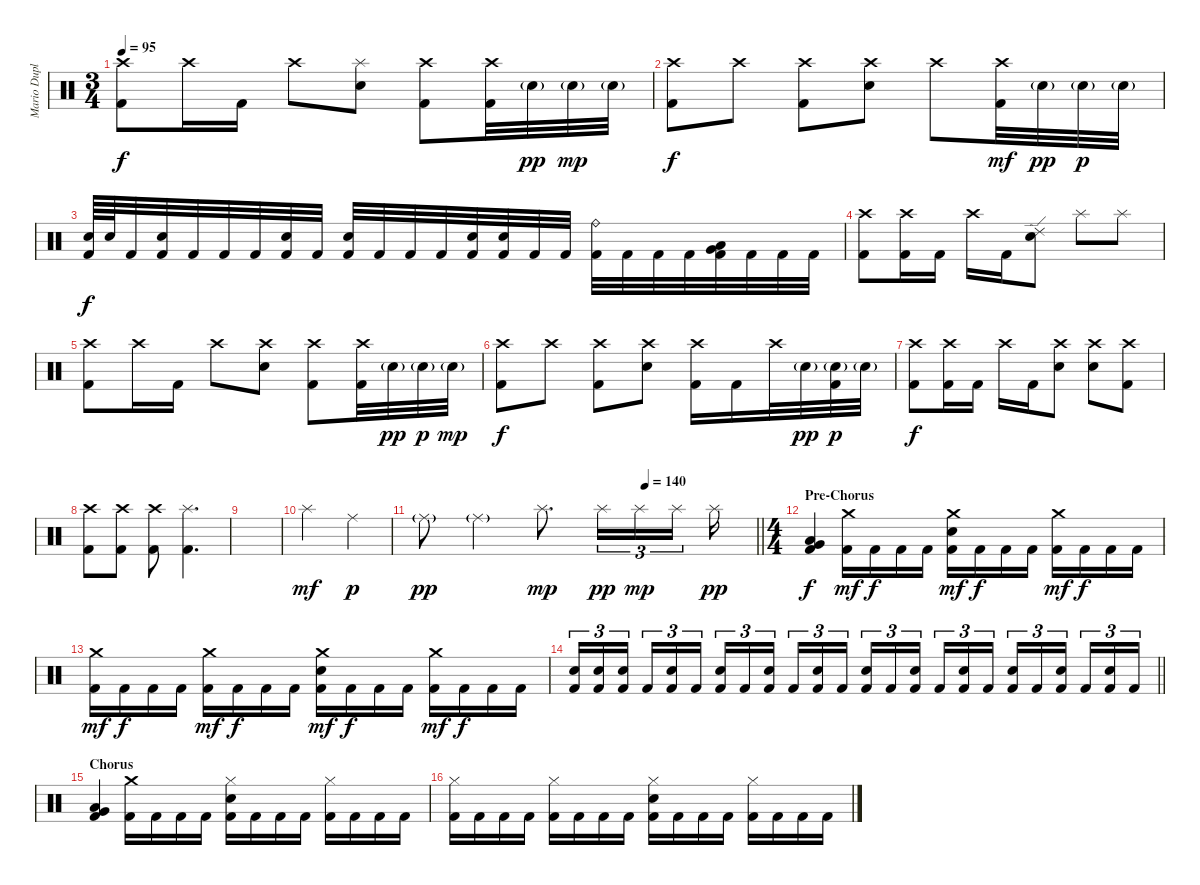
\track ("Mario Duplantier" "Mario Dupl") {instrument percussion}
\staff {score}
\articulation defaults
\ts (3 4)
\tempo 95
\clef neutral
\ks c
("Crash high (hit)" "Kick (hit) 2").8{dy f} "Crash high (hit)".16 "Kick (hit) 2".16 "Crash high (hit)".8 ("Splash (hit)" "Snare (hit) 2").8 ("Crash high (hit)" "Kick (hit) 2").8 ("Crash high (hit)" "Kick (hit) 2").32 "Snare (hit) 2"{g}.32{dy pp} "Snare (hit) 2"{g}.32{dy mp} "Snare (hit) 2"{g}.32 |
("Crash high (hit)" "Kick (hit) 2").8{dy f} "Crash high (hit)".8 ("Crash high (hit)" "Kick (hit) 2").8 ("Crash high (hit)" "Snare (hit) 2").8 "Crash high (hit)".8 ("Crash high (hit)" "Kick (hit) 2").32{dy mf} "Snare (hit) 2"{g}.32{dy pp} "Snare (hit) 2"{g}.32{dy p} "Snare (hit) 2"{g}.32 |
("Snare (hit) 2" "Kick (hit) 2").64{dy f} "Snare (hit) 2".64 "Kick (hit) 2".32 ("Snare (hit) 2" "Kick (hit) 2").32 "Kick (hit) 2".32 "Kick (hit) 2".32 "Kick (hit) 2".32 ("Snare (hit) 2" "Kick (hit) 2").32 "Kick (hit) 2".32 ("Snare (hit) 2" "Kick (hit) 2").32 "Kick (hit) 2".32 "Kick (hit) 2".32 "Kick (hit) 2".32 ("Snare (hit) 2" "Kick (hit) 2").32 ("Snare (hit) 2" "Kick (hit) 2").32 "Kick (hit) 2".32 "Kick (hit) 2".32 ("Ride (bell)" "Kick (hit) 2").32 "Kick (hit) 2".32 "Kick (hit) 2".32 "Kick (hit) 2".32 ("Low Floor Tom (hit)" "Very Low Tom (hit)" "Kick (hit) 2").32 "Kick (hit) 2".32 "Kick (hit) 2".32 "Kick (hit) 2".32 |
("Crash high (hit)" "Kick (hit) 2").8 ("Crash high (hit)" "Kick (hit) 2").16 "Kick (hit) 2".16 "Crash high (hit)".16 "Kick (hit) 2".16 ("Ride (edge) 2" "Snare (hit) 2").8 "Splash (hit)".8 "Splash (hit)".8 |
("Crash high (hit)" "Kick (hit) 2").8 "Crash high (hit)".16 "Kick (hit) 2".16 "Crash high (hit)".8 ("Crash high (hit)" "Snare (hit) 2").8 ("Crash high (hit)" "Kick (hit) 2").8 ("Crash high (hit)" "Kick (hit) 2").32 "Snare (hit) 2"{g}.32{dy pp} "Snare (hit) 2"{g}.32{dy p} "Snare (hit) 2"{g}.32{dy mp} |
("Crash high (hit)" "Kick (hit) 2").8{dy f} "Crash high (hit)".8 ("Crash high (hit)" "Kick (hit) 2").8 ("Crash high (hit)" "Snare (hit) 2").8 ("Crash high (hit)" "Kick (hit) 2").16 "Kick (hit) 2".16 "Crash high (hit)".32 "Snare (hit) 2"{g}.32{dy pp} ("Snare (hit) 2"{g} "Kick (hit) 2").32{dy p} "Snare (hit) 2"{g}.32 |
("Crash high (hit)" "Kick (hit) 2").8{dy f} ("Crash high (hit)" "Kick (hit) 2").16 "Kick (hit) 2".16 "Crash high (hit)".16 "Kick (hit) 2".16 ("Crash high (hit)" "Snare (hit) 2").8 ("Crash high (hit)" "Snare (hit) 2").8 ("Crash high (hit)" "Kick (hit) 2").8 |
("Crash high (hit)" "Kick (hit) 2").8 ("Crash high (hit)" "Kick (hit) 2").8 ("Crash high (hit)" "Kick (hit) 2").8 ("Splash (hit)" "Kick (hit) 2").4{d} |
|
"Splash (hit)".2{dy mf} "Ride (middle)".4{dy p} |
\tempo (140 0.6666666666666666)
\barLineRight lightlight "Ride (middle)"{g}.8{dy pp} "Ride (middle)"{g}.4 "Splash (hit)".8{d dy mp} "Splash (hit)".16{tu (3 2) dy pp} "Splash (hit)".16{tu (3 2) dy mp} "Splash (hit)".16{tu (3 2) beam splitsecondary} "Splash (hit)".16{dy pp}
|
\ts (4 4)
\section ("" "Pre-Chorus")
("Low Floor Tom (hit)" "Very Low Tom (hit)" "Kick (hit) 2").4{dy f} ("Crash medium (hit)" "Kick (hit) 2").16{dy mf} "Kick (hit) 2".16{dy f} "Kick (hit) 2".16 "Kick (hit) 2".16 ("Crash medium (hit)" "Snare (hit) 2" "Kick (hit) 2").16{dy mf} "Kick (hit) 2".16{dy f} "Kick (hit) 2".16 "Kick (hit) 2".16 ("Crash medium (hit)" "Kick (hit) 2").16{dy mf} "Kick (hit) 2".16{dy f} "Kick (hit) 2".16 "Kick (hit) 2".16 |
("Crash medium (hit)" "Kick (hit) 2").16{dy mf} "Kick (hit) 2".16{dy f} "Kick (hit) 2".16 "Kick (hit) 2".16 ("Crash medium (hit)" "Kick (hit) 2").16{dy mf} "Kick (hit) 2".16{dy f} "Kick (hit) 2".16 "Kick (hit) 2".16 ("Crash medium (hit)" "Snare (hit) 2" "Kick (hit) 2").16{dy mf} "Kick (hit) 2".16{dy f} "Kick (hit) 2".16 "Kick (hit) 2".16 ("Crash medium (hit)" "Kick (hit) 2").16{dy mf} "Kick (hit) 2".16{dy f} "Kick (hit) 2".16 "Kick (hit) 2".16 |
\barLineRight lightlight
("Snare (hit) 2" "Kick (hit) 2").16{tu (3 2)} ("Snare (hit) 2" "Kick (hit) 2").16{tu (3 2)} ("Snare (hit) 2" "Kick (hit) 2").16{tu (3 2) beam splitsecondary} "Kick (hit) 2".16{tu (3 2)} ("Snare (hit) 2" "Kick (hit) 2").16{tu (3 2)} "Kick (hit) 2".16{tu (3 2)} ("Snare (hit) 2" "Kick (hit) 2").16{tu (3 2)} "Kick (hit) 2".16{tu (3 2)} ("Snare (hit) 2" "Kick (hit) 2").16{tu (3 2) beam splitsecondary} "Kick (hit) 2".16{tu (3 2)} ("Snare (hit) 2" "Kick (hit) 2").16{tu (3 2)} "Kick (hit) 2".16{tu (3 2)} ("Snare (hit) 2" "Kick (hit) 2").16{tu (3 2)} "Kick (hit) 2".16{tu (3 2)} ("Snare (hit) 2" "Kick (hit) 2").16{tu (3 2) beam splitsecondary} "Kick (hit) 2".16{tu (3 2)} ("Snare (hit) 2" "Kick (hit) 2").16{tu (3 2)} "Kick (hit) 2".16{tu (3 2)} ("Snare (hit) 2" "Kick (hit) 2").16{tu (3 2)} "Kick (hit) 2".16{tu (3 2)} ("Snare (hit) 2" "Kick (hit) 2").16{tu (3 2) beam splitsecondary} "Kick (hit) 2".16{tu (3 2)} ("Snare (hit) 2" "Kick (hit) 2").16{tu (3 2)} "Kick (hit) 2".16{tu (3 2)} |
\section ("" "Chorus")
("Low Floor Tom (hit)" "Very Low Tom (hit)" "Kick (hit) 2").4 ("Crash medium (hit)" "Kick (hit) 2").16 "Kick (hit) 2".16 "Kick (hit) 2".16 "Kick (hit) 2".16 ("Hi-Hat (closed)" "Snare (hit) 2" "Kick (hit) 2").16 "Kick (hit) 2".16 "Kick (hit) 2".16 "Kick (hit) 2".16 ("Hi-Hat (closed)" "Kick (hit) 2").16 "Kick (hit) 2".16 "Kick (hit) 2".16 "Kick (hit) 2".16 |
("Hi-Hat (closed)" "Kick (hit) 2").16 "Kick (hit) 2".16 "Kick (hit) 2".16 "Kick (hit) 2".16 ("Hi-Hat (closed)" "Kick (hit) 2").16 "Kick (hit) 2".16 "Kick (hit) 2".16 "Kick (hit) 2".16 ("Hi-Hat (closed)" "Snare (hit) 2" "Kick (hit) 2").16 "Kick (hit) 2".16 "Kick (hit) 2".16 "Kick (hit) 2".16 ("Hi-Hat (closed)" "Kick (hit) 2").16 "Kick (hit) 2".16 "Kick (hit) 2".16 "Kick (hit) 2".16
